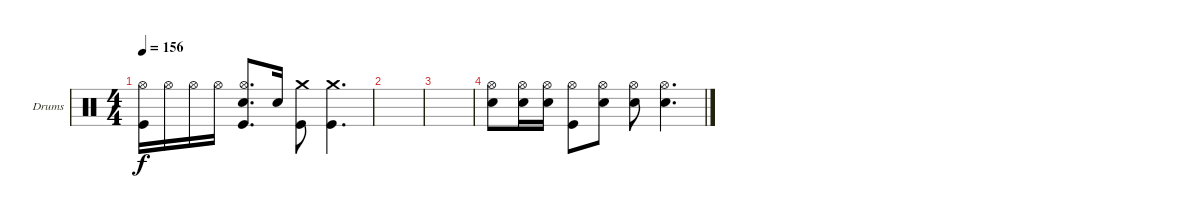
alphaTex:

\bracketExtendMode groupsimilarinstruments
\firstSystemTrackNameOrientation horizontal
\otherSystemsTrackNameOrientation horizontal
\track ("Drums" "Drums") {instrument percussion}
\staff {score}
\articulation defaults
\ts (4 4)
\tempo 156
\clef neutral
\ks c
("Kick (hit)" "Hi-Hat (open)").16{dy f} "Hi-Hat (open)".16 "Hi-Hat (open)".16 "Hi-Hat (open)".16 ("Hi-Hat (open)" "Snare (hit) 2" "Kick (hit)").8{d} "Snare (hit) 2".16 ("Kick (hit)" "Crash medium (hit)").8 ("Kick (hit)" "Crash medium (hit)").4{d} |
|
|
("Snare (hit) 2" "Hi-Hat (open)").8 ("Hi-Hat (open)" "Snare (hit) 2").16 ("Hi-Hat (open)" "Snare (hit) 2").16 ("Kick (hit)" "Hi-Hat (open)").8 ("Snare (hit) 2" "Hi-Hat (open)").8 ("Snare (hit) 2" "Hi-Hat (open)").8 ("Snare (hit) 2" "Hi-Hat (open)").4{d}
